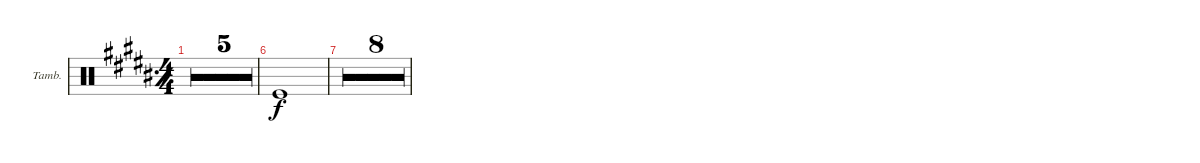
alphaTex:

\defaultSystemsLayout 4
\bracketExtendMode groupsimilarinstruments
\firstSystemTrackNameOrientation horizontal
\otherSystemsTrackNameOrientation horizontal
\track ("Tambourine" "Tamb.") {multiBarRest instrument percussion}
\staff {score}
\articulation defaults
\ts (4 4)
\tempo 106
\clef neutral
\simile simple
\ks b
|
|
|
|
|
\simile none "Kick (hit)".1
|
r.1 |
r.1 |
r.1 |
r.1 |
r.1 |
r.1 |
r.1 |
r.1
